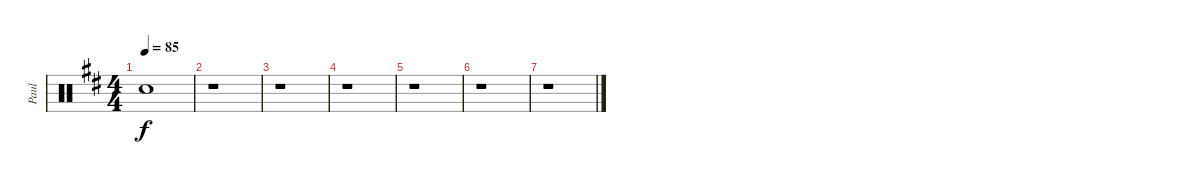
\track ("Paul" "Paul") {instrument percussion}
\staff {score}
\articulation defaults
\ts (4 4)
\tempo 85
\clef neutral
\ks bminor "Snare (hit)"{t}.1{dy f}
|
r.1 |
r.1 |
r.1 |
r.1 |
r.1 |
r.1
